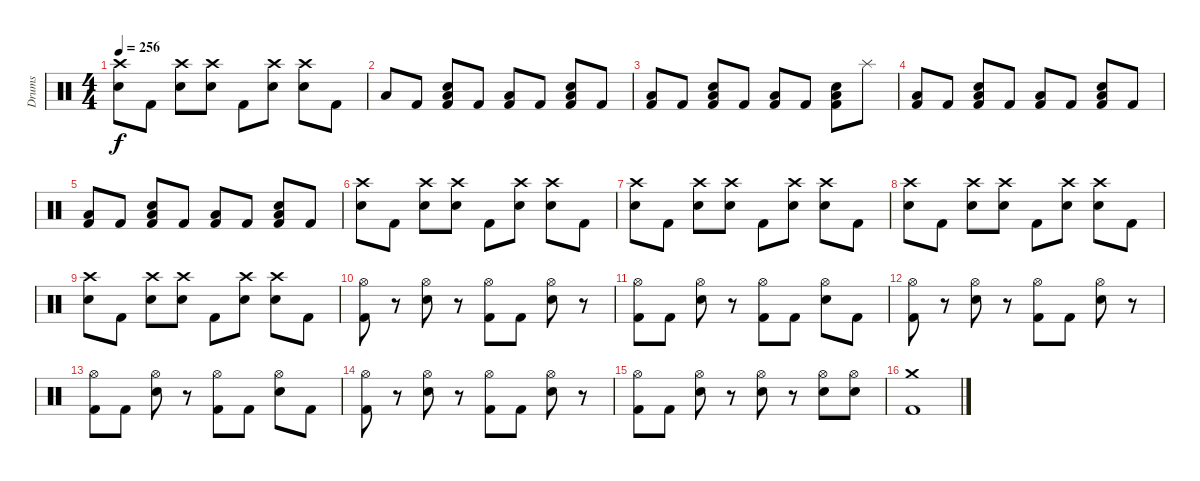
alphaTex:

\track ("Drums" "Drums") {instrument percussion}
\staff {score}
\articulation defaults
\ts (4 4)
\tempo 256
\clef neutral
\ks c
("Crash high (hit)" "Electric Snare (hit)").8{dy f} "Kick (hit) 2".8 ("Crash high (hit)" "Electric Snare (hit)").8 ("Crash high (hit)" "Electric Snare (hit)").8 "Kick (hit) 2".8 ("Crash high (hit)" "Electric Snare (hit)").8 ("Crash high (hit)" "Electric Snare (hit)").8 "Kick (hit) 2".8 |
"Low Tom (hit)".8 "Kick (hit) 2".8 ("Low Tom (hit)" "Electric Snare (hit)" "Kick (hit) 2").8 "Kick (hit) 2".8 ("Low Tom (hit)" "Kick (hit) 2").8 "Kick (hit) 2".8 ("Low Tom (hit)" "Electric Snare (hit)" "Kick (hit) 2").8 "Kick (hit) 2".8 |
("Low Tom (hit)" "Kick (hit) 2").8 "Kick (hit) 2".8 ("Low Tom (hit)" "Electric Snare (hit)" "Kick (hit) 2").8 "Kick (hit) 2".8 ("Low Tom (hit)" "Kick (hit) 2").8 "Kick (hit) 2".8 ("Low Tom (hit)" "Electric Snare (hit)" "Kick (hit) 2").8 "Splash (hit)".8 |
("Low Tom (hit)" "Kick (hit) 2").8 "Kick (hit) 2".8 ("Low Tom (hit)" "Electric Snare (hit)" "Kick (hit) 2").8 "Kick (hit) 2".8 ("Low Tom (hit)" "Kick (hit) 2").8 "Kick (hit) 2".8 ("Low Tom (hit)" "Electric Snare (hit)" "Kick (hit) 2").8 "Kick (hit) 2".8 |
("Low Tom (hit)" "Kick (hit) 2").8 "Kick (hit) 2".8 ("Low Tom (hit)" "Electric Snare (hit)" "Kick (hit) 2").8 "Kick (hit) 2".8 ("Low Tom (hit)" "Kick (hit) 2").8 "Kick (hit) 2".8 ("Low Tom (hit)" "Electric Snare (hit)" "Kick (hit) 2").8 "Kick (hit) 2".8 |
("Crash high (hit)" "Electric Snare (hit)").8 "Kick (hit) 2".8 ("Crash high (hit)" "Electric Snare (hit)").8 ("Crash high (hit)" "Electric Snare (hit)").8 "Kick (hit) 2".8 ("Crash high (hit)" "Electric Snare (hit)").8 ("Crash high (hit)" "Electric Snare (hit)").8 "Kick (hit) 2".8 |
("Crash high (hit)" "Electric Snare (hit)").8 "Kick (hit) 2".8 ("Crash high (hit)" "Electric Snare (hit)").8 ("Crash high (hit)" "Electric Snare (hit)").8 "Kick (hit) 2".8 ("Crash high (hit)" "Electric Snare (hit)").8 ("Crash high (hit)" "Electric Snare (hit)").8 "Kick (hit) 2".8 |
("Crash high (hit)" "Electric Snare (hit)").8 "Kick (hit) 2".8 ("Crash high (hit)" "Electric Snare (hit)").8 ("Crash high (hit)" "Electric Snare (hit)").8 "Kick (hit) 2".8 ("Crash high (hit)" "Electric Snare (hit)").8 ("Crash high (hit)" "Electric Snare (hit)").8 "Kick (hit) 2".8 |
("Crash high (hit)" "Electric Snare (hit)").8 "Kick (hit) 2".8 ("Crash high (hit)" "Electric Snare (hit)").8 ("Crash high (hit)" "Electric Snare (hit)").8 "Kick (hit) 2".8 ("Crash high (hit)" "Electric Snare (hit)").8 ("Crash high (hit)" "Electric Snare (hit)").8 "Kick (hit) 2".8 |
("Hi-Hat (open)" "Kick (hit) 2").8 r.8 ("Hi-Hat (open)" "Electric Snare (hit)").8 r.8 ("Hi-Hat (open)" "Kick (hit) 2").8 "Kick (hit) 2".8 ("Hi-Hat (open)" "Electric Snare (hit)").8 r.8 |
("Hi-Hat (open)" "Kick (hit) 2").8 "Kick (hit) 2".8 ("Hi-Hat (open)" "Electric Snare (hit)").8 r.8 ("Hi-Hat (open)" "Kick (hit) 2").8 "Kick (hit) 2".8 ("Hi-Hat (open)" "Electric Snare (hit)").8 "Kick (hit) 2".8 |
("Hi-Hat (open)" "Kick (hit) 2").8 r.8 ("Hi-Hat (open)" "Electric Snare (hit)").8 r.8 ("Hi-Hat (open)" "Kick (hit) 2").8 "Kick (hit) 2".8 ("Hi-Hat (open)" "Electric Snare (hit)").8 r.8 |
("Hi-Hat (open)" "Kick (hit) 2").8 "Kick (hit) 2".8 ("Hi-Hat (open)" "Electric Snare (hit)").8 r.8 ("Hi-Hat (open)" "Kick (hit) 2").8 "Kick (hit) 2".8 ("Hi-Hat (open)" "Electric Snare (hit)").8 "Kick (hit) 2".8 |
("Hi-Hat (open)" "Kick (hit) 2").8 r.8 ("Hi-Hat (open)" "Electric Snare (hit)").8 r.8 ("Hi-Hat (open)" "Kick (hit) 2").8 "Kick (hit) 2".8 ("Hi-Hat (open)" "Electric Snare (hit)").8 r.8 |
("Hi-Hat (open)" "Kick (hit) 2").8 "Kick (hit) 2".8 ("Hi-Hat (open)" "Electric Snare (hit)").8 r.8 ("Hi-Hat (open)" "Electric Snare (hit)").8 r.8 ("Hi-Hat (open)" "Electric Snare (hit)").8 ("Hi-Hat (open)" "Electric Snare (hit)").8 |
("Crash medium (hit)" "Kick (hit) 2").1
